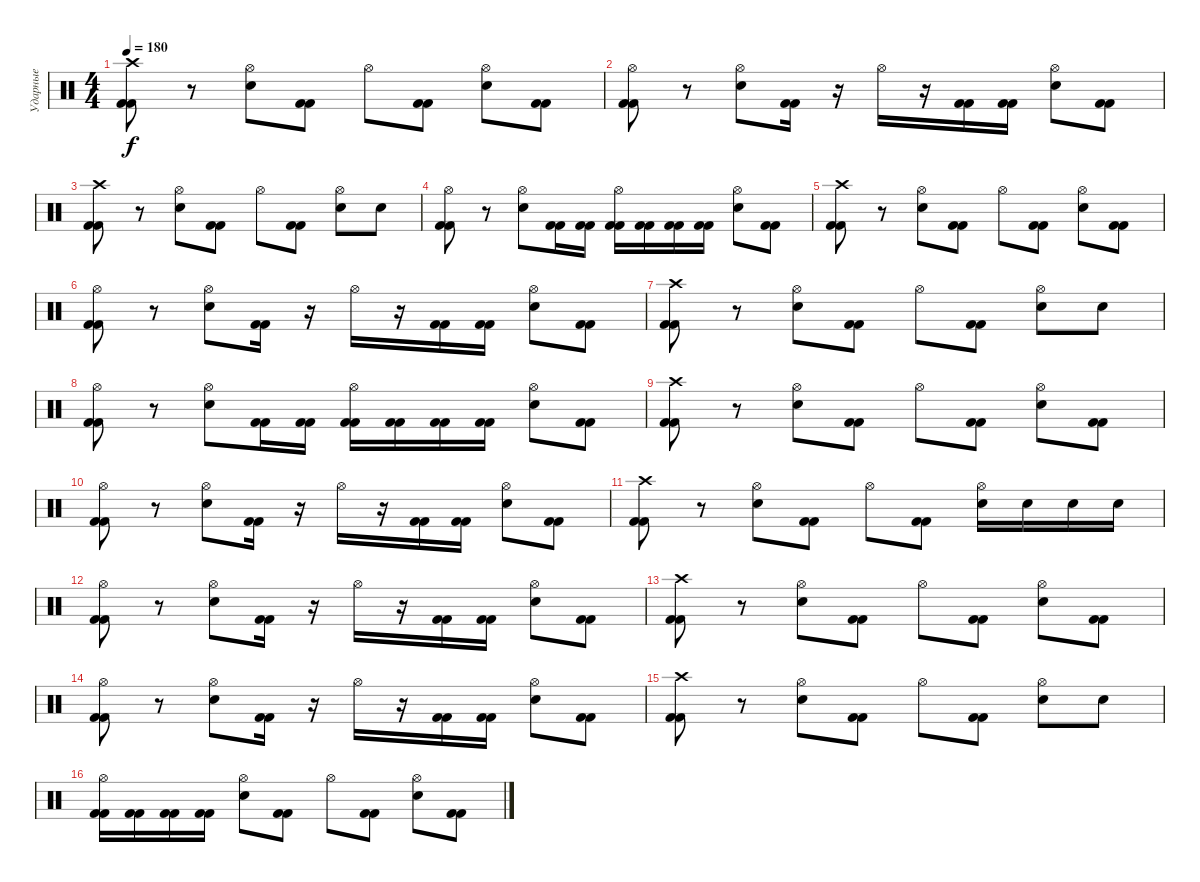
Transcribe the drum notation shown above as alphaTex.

\track ("Ударные" "Ударные") {instrument percussion}
\staff {score}
\articulation defaults
\ts (4 4)
\tempo 180
\clef neutral
\ks c
("Crash high (hit)" "Kick (hit) 2" "Kick (hit) 2").8{dy f} r.8 ("Hi-Hat (open)" "Electric Snare (hit)").8 ("Kick (hit) 2" "Kick (hit) 2").8 "Hi-Hat (open)".8 ("Kick (hit) 2" "Kick (hit) 2").8 ("Hi-Hat (open)" "Electric Snare (hit)").8 ("Kick (hit) 2" "Kick (hit) 2").8 |
("Hi-Hat (open)" "Kick (hit) 2" "Kick (hit) 2").8 r.8 ("Hi-Hat (open)" "Electric Snare (hit)").8 ("Kick (hit) 2" "Kick (hit) 2").16 r.16 "Hi-Hat (open)".16 r.16 ("Kick (hit) 2" "Kick (hit) 2").16 ("Kick (hit) 2" "Kick (hit) 2").16 ("Hi-Hat (open)" "Electric Snare (hit)").8 ("Kick (hit) 2" "Kick (hit) 2").8 |
("Crash high (hit)" "Kick (hit) 2" "Kick (hit) 2").8 r.8 ("Hi-Hat (open)" "Electric Snare (hit)").8 ("Kick (hit) 2" "Kick (hit) 2").8 "Hi-Hat (open)".8 ("Kick (hit) 2" "Kick (hit) 2").8 ("Hi-Hat (open)" "Electric Snare (hit)").8 "Electric Snare (hit)".8 |
("Hi-Hat (open)" "Kick (hit) 2" "Kick (hit) 2").8 r.8 ("Hi-Hat (open)" "Electric Snare (hit)").8 ("Kick (hit) 2" "Kick (hit) 2").16 ("Kick (hit) 2" "Kick (hit) 2").16 ("Hi-Hat (open)" "Kick (hit) 2" "Kick (hit) 2").16 ("Kick (hit) 2" "Kick (hit) 2").16 ("Kick (hit) 2" "Kick (hit) 2").16 ("Kick (hit) 2" "Kick (hit) 2").16 ("Hi-Hat (open)" "Electric Snare (hit)").8 ("Kick (hit) 2" "Kick (hit) 2").8 |
("Crash high (hit)" "Kick (hit) 2" "Kick (hit) 2").8 r.8 ("Hi-Hat (open)" "Electric Snare (hit)").8 ("Kick (hit) 2" "Kick (hit) 2").8 "Hi-Hat (open)".8 ("Kick (hit) 2" "Kick (hit) 2").8 ("Hi-Hat (open)" "Electric Snare (hit)").8 ("Kick (hit) 2" "Kick (hit) 2").8 |
("Hi-Hat (open)" "Kick (hit) 2" "Kick (hit) 2").8 r.8 ("Hi-Hat (open)" "Electric Snare (hit)").8 ("Kick (hit) 2" "Kick (hit) 2").16 r.16 "Hi-Hat (open)".16 r.16 ("Kick (hit) 2" "Kick (hit) 2").16 ("Kick (hit) 2" "Kick (hit) 2").16 ("Hi-Hat (open)" "Electric Snare (hit)").8 ("Kick (hit) 2" "Kick (hit) 2").8 |
("Crash high (hit)" "Kick (hit) 2" "Kick (hit) 2").8 r.8 ("Hi-Hat (open)" "Electric Snare (hit)").8 ("Kick (hit) 2" "Kick (hit) 2").8 "Hi-Hat (open)".8 ("Kick (hit) 2" "Kick (hit) 2").8 ("Hi-Hat (open)" "Electric Snare (hit)").8 "Electric Snare (hit)".8 |
("Hi-Hat (open)" "Kick (hit) 2" "Kick (hit) 2").8 r.8 ("Hi-Hat (open)" "Electric Snare (hit)").8 ("Kick (hit) 2" "Kick (hit) 2").16 ("Kick (hit) 2" "Kick (hit) 2").16 ("Hi-Hat (open)" "Kick (hit) 2" "Kick (hit) 2").16 ("Kick (hit) 2" "Kick (hit) 2").16 ("Kick (hit) 2" "Kick (hit) 2").16 ("Kick (hit) 2" "Kick (hit) 2").16 ("Hi-Hat (open)" "Electric Snare (hit)").8 ("Kick (hit) 2" "Kick (hit) 2").8 |
("Crash high (hit)" "Kick (hit) 2" "Kick (hit) 2").8 r.8 ("Hi-Hat (open)" "Electric Snare (hit)").8 ("Kick (hit) 2" "Kick (hit) 2").8 "Hi-Hat (open)".8 ("Kick (hit) 2" "Kick (hit) 2").8 ("Hi-Hat (open)" "Electric Snare (hit)").8 ("Kick (hit) 2" "Kick (hit) 2").8 |
("Hi-Hat (open)" "Kick (hit) 2" "Kick (hit) 2").8 r.8 ("Hi-Hat (open)" "Electric Snare (hit)").8 ("Kick (hit) 2" "Kick (hit) 2").16 r.16 "Hi-Hat (open)".16 r.16 ("Kick (hit) 2" "Kick (hit) 2").16 ("Kick (hit) 2" "Kick (hit) 2").16 ("Hi-Hat (open)" "Electric Snare (hit)").8 ("Kick (hit) 2" "Kick (hit) 2").8 |
("Crash high (hit)" "Kick (hit) 2" "Kick (hit) 2").8 r.8 ("Hi-Hat (open)" "Electric Snare (hit)").8 ("Kick (hit) 2" "Kick (hit) 2").8 "Hi-Hat (open)".8 ("Kick (hit) 2" "Kick (hit) 2").8 ("Hi-Hat (open)" "Electric Snare (hit)").16 "Electric Snare (hit)".16 "Electric Snare (hit)".16 "Electric Snare (hit)".16 |
("Hi-Hat (open)" "Kick (hit) 2" "Kick (hit) 2").8 r.8 ("Hi-Hat (open)" "Electric Snare (hit)").8 ("Kick (hit) 2" "Kick (hit) 2").16 r.16 "Hi-Hat (open)".16 r.16 ("Kick (hit) 2" "Kick (hit) 2").16 ("Kick (hit) 2" "Kick (hit) 2").16 ("Hi-Hat (open)" "Electric Snare (hit)").8 ("Kick (hit) 2" "Kick (hit) 2").8 |
("Crash high (hit)" "Kick (hit) 2" "Kick (hit) 2").8 r.8 ("Hi-Hat (open)" "Electric Snare (hit)").8 ("Kick (hit) 2" "Kick (hit) 2").8 "Hi-Hat (open)".8 ("Kick (hit) 2" "Kick (hit) 2").8 ("Hi-Hat (open)" "Electric Snare (hit)").8 ("Kick (hit) 2" "Kick (hit) 2").8 |
("Hi-Hat (open)" "Kick (hit) 2" "Kick (hit) 2").8 r.8 ("Hi-Hat (open)" "Electric Snare (hit)").8 ("Kick (hit) 2" "Kick (hit) 2").16 r.16 "Hi-Hat (open)".16 r.16 ("Kick (hit) 2" "Kick (hit) 2").16 ("Kick (hit) 2" "Kick (hit) 2").16 ("Hi-Hat (open)" "Electric Snare (hit)").8 ("Kick (hit) 2" "Kick (hit) 2").8 |
("Crash high (hit)" "Kick (hit) 2" "Kick (hit) 2").8 r.8 ("Hi-Hat (open)" "Electric Snare (hit)").8 ("Kick (hit) 2" "Kick (hit) 2").8 "Hi-Hat (open)".8 ("Kick (hit) 2" "Kick (hit) 2").8 ("Hi-Hat (open)" "Electric Snare (hit)").8 "Electric Snare (hit)".8 |
("Hi-Hat (open)" "Kick (hit) 2" "Kick (hit) 2").16 ("Kick (hit) 2" "Kick (hit) 2").16 ("Kick (hit) 2" "Kick (hit) 2").16 ("Kick (hit) 2" "Kick (hit) 2").16 ("Hi-Hat (open)" "Electric Snare (hit)").8 ("Kick (hit) 2" "Kick (hit) 2").8 "Hi-Hat (open)".8 ("Kick (hit) 2" "Kick (hit) 2").8 ("Hi-Hat (open)" "Electric Snare (hit)").8 ("Kick (hit) 2" "Kick (hit) 2").8
